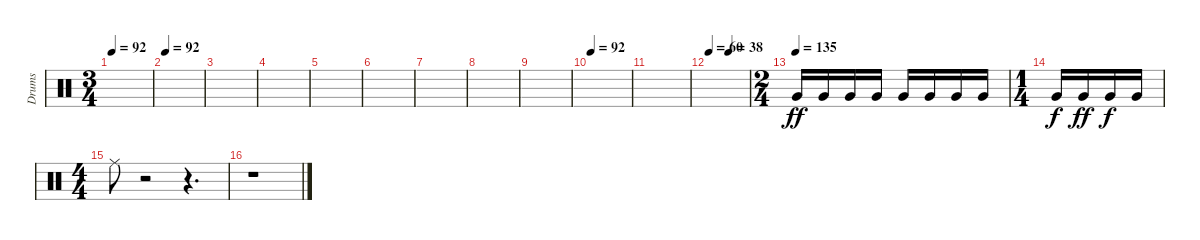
\track ("Drums" "Drums") {instrument percussion}
\staff {score}
\articulation defaults
\ts (3 4)
\tempo 92
\clef neutral
\ks c
|
\tempo 92
|
|
|
|
|
|
|
|
\tempo 92
|
|
\tempo 60
\tempo (38 0.5)
|
\ts (2 4)
\tempo (135)
"Very Low Tom (hit)".16{dy ff volume 0} "Very Low Tom (hit)".16{volume 2} "Very Low Tom (hit)".16{volume 4} "Very Low Tom (hit)".16{volume 6} "Very Low Tom (hit)".16{volume 8} "Very Low Tom (hit)".16{volume 10} "Very Low Tom (hit)".16{volume 12} "Very Low Tom (hit)".16{volume 13} |
\ts (1 4)
"Very Low Tom (hit)".16{dy f volume 14} "Very Low Tom (hit)".16{dy ff volume 16} "Very Low Tom (hit)".16{dy f} "Very Low Tom (hit)".16 |
\ts (4 4)
"Ride (middle)".8 r.2 r.4{d} |
r.1
